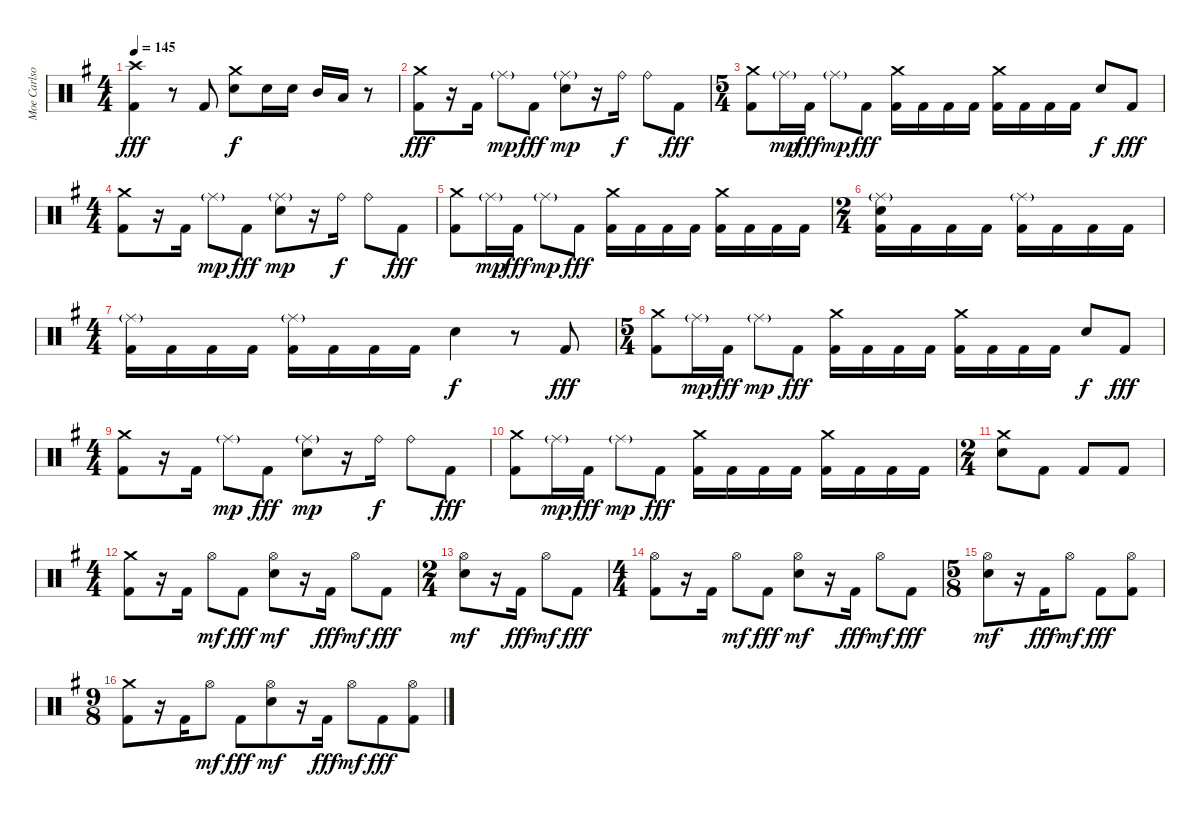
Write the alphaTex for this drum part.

\track ("Moe Carlson" "Moe Carlso") {instrument percussion}
\staff {score}
\articulation defaults
\ts (4 4)
\tempo 145
\clef neutral
\ks g
("Crash high (hit)" "Kick (hit) 2").4{dy fff} r.8 "Kick (hit) 2".8 ("Crash medium (hit)" "Electric Snare (hit)").8{dy f} "Electric Snare (hit)".16 "Electric Snare (hit)".16 "Mid Tom (hit)".16 "Low Tom (hit)".16 r.8 |
("Crash medium (hit)" "Kick (hit) 2").8{dy fff} r.16 "Kick (hit) 2".16 "Ride (middle)"{g}.8{dy mp} "Kick (hit) 2".8{dy fff} ("Ride (middle)"{g} "Electric Snare (hit)").8{dy mp} r.16 "Ride (bell)".16{dy f} "Ride (bell)".8 "Kick (hit) 2".8{dy fff} |
\ts (5 4)
("Crash medium (hit)" "Kick (hit) 2").8 "Ride (middle)"{g}.16{dy mp} "Kick (hit) 2".16{dy fff} "Ride (middle)"{g}.8{dy mp} "Kick (hit) 2".8{dy fff} ("Crash medium (hit)" "Kick (hit) 2").16 "Kick (hit) 2".16 "Kick (hit) 2".16 "Kick (hit) 2".16 ("Crash medium (hit)" "Kick (hit) 2").16 "Kick (hit) 2".16 "Kick (hit) 2".16 "Kick (hit) 2".16 "Electric Snare (hit)".8{dy f} "Kick (hit) 2".8{dy fff} |
\ts (4 4)
("Crash medium (hit)" "Kick (hit) 2").8 r.16 "Kick (hit) 2".16 "Ride (middle)"{g}.8{dy mp} "Kick (hit) 2".8{dy fff} ("Ride (middle)"{g} "Electric Snare (hit)").8{dy mp} r.16 "Ride (bell)".16{dy f} "Ride (bell)".8 "Kick (hit) 2".8{dy fff} |
("Crash medium (hit)" "Kick (hit) 2").8 "Ride (middle)"{g}.16{dy mp} "Kick (hit) 2".16{dy fff} "Ride (middle)"{g}.8{dy mp} "Kick (hit) 2".8{dy fff} ("Crash medium (hit)" "Kick (hit) 2").16 "Kick (hit) 2".16 "Kick (hit) 2".16 "Kick (hit) 2".16 ("Crash medium (hit)" "Kick (hit) 2").16 "Kick (hit) 2".16 "Kick (hit) 2".16 "Kick (hit) 2".16 |
\ts (2 4)
("Ride (middle)"{g} "Electric Snare (hit)" "Kick (hit) 2").16 "Kick (hit) 2".16 "Kick (hit) 2".16 "Kick (hit) 2".16 ("Ride (middle)"{g} "Kick (hit) 2").16 "Kick (hit) 2".16 "Kick (hit) 2".16 "Kick (hit) 2".16 |
\ts (4 4)
("Ride (middle)"{g} "Kick (hit) 2").16 "Kick (hit) 2".16 "Kick (hit) 2".16 "Kick (hit) 2".16 ("Ride (middle)"{g} "Kick (hit) 2").16 "Kick (hit) 2".16 "Kick (hit) 2".16 "Kick (hit) 2".16 "Electric Snare (hit)".4{dy f} r.8 "Kick (hit) 2".8{dy fff} |
\ts (5 4)
("Crash medium (hit)" "Kick (hit) 2").8 "Ride (middle)"{g}.16{dy mp} "Kick (hit) 2".16{dy fff} "Ride (middle)"{g}.8{dy mp} "Kick (hit) 2".8{dy fff} ("Crash medium (hit)" "Kick (hit) 2").16 "Kick (hit) 2".16 "Kick (hit) 2".16 "Kick (hit) 2".16 ("Crash medium (hit)" "Kick (hit) 2").16 "Kick (hit) 2".16 "Kick (hit) 2".16 "Kick (hit) 2".16 "Electric Snare (hit)".8{dy f} "Kick (hit) 2".8{dy fff} |
\ts (4 4)
("Crash medium (hit)" "Kick (hit) 2").8 r.16 "Kick (hit) 2".16 "Ride (middle)"{g}.8{dy mp} "Kick (hit) 2".8{dy fff} ("Ride (middle)"{g} "Electric Snare (hit)").8{dy mp} r.16 "Ride (bell)".16{dy f} "Ride (bell)".8 "Kick (hit) 2".8{dy fff} |
("Crash medium (hit)" "Kick (hit) 2").8 "Ride (middle)"{g}.16{dy mp} "Kick (hit) 2".16{dy fff} "Ride (middle)"{g}.8{dy mp} "Kick (hit) 2".8{dy fff} ("Crash medium (hit)" "Kick (hit) 2").16 "Kick (hit) 2".16 "Kick (hit) 2".16 "Kick (hit) 2".16 ("Crash medium (hit)" "Kick (hit) 2").16 "Kick (hit) 2".16 "Kick (hit) 2".16 "Kick (hit) 2".16 |
\ts (2 4)
("Crash medium (hit)" "Electric Snare (hit)").8 "Kick (hit) 2".8 "Kick (hit) 2".8 "Kick (hit) 2".8 |
\ts (4 4)
("Crash medium (hit)" "Kick (hit) 2").8 r.16 "Kick (hit) 2".16 "Hi-Hat (open)".8{dy mf} "Kick (hit) 2".8{dy fff} ("Hi-Hat (open)" "Electric Snare (hit)").8{dy mf} r.16 "Kick (hit) 2".16{dy fff} "Hi-Hat (open)".8{dy mf} "Kick (hit) 2".8{dy fff} |
\ts (2 4)
("Hi-Hat (open)" "Electric Snare (hit)").8{dy mf} r.16 "Kick (hit) 2".16{dy fff} "Hi-Hat (open)".8{dy mf} "Kick (hit) 2".8{dy fff} |
\ts (4 4)
("Hi-Hat (open)" "Kick (hit) 2").8 r.16 "Kick (hit) 2".16 "Hi-Hat (open)".8{dy mf} "Kick (hit) 2".8{dy fff} ("Hi-Hat (open)" "Electric Snare (hit)").8{dy mf} r.16 "Kick (hit) 2".16{dy fff} "Hi-Hat (open)".8{dy mf} "Kick (hit) 2".8{dy fff} |
\ts (5 8)
("Hi-Hat (open)" "Electric Snare (hit)").8{dy mf} r.16 "Kick (hit) 2".16{dy fff} "Hi-Hat (open)".8{dy mf} "Kick (hit) 2".8{dy fff} ("Hi-Hat (open)" "Kick (hit) 2").8 |
\ts (9 8)
("Crash medium (hit)" "Kick (hit) 2").8 r.16 "Kick (hit) 2".16 "Hi-Hat (open)".8{dy mf} "Kick (hit) 2".8{dy fff} ("Hi-Hat (open)" "Electric Snare (hit)").8{dy mf} r.16 "Kick (hit) 2".16{dy fff} "Hi-Hat (open)".8{dy mf} "Kick (hit) 2".8{dy fff} ("Hi-Hat (open)" "Kick (hit) 2").8
